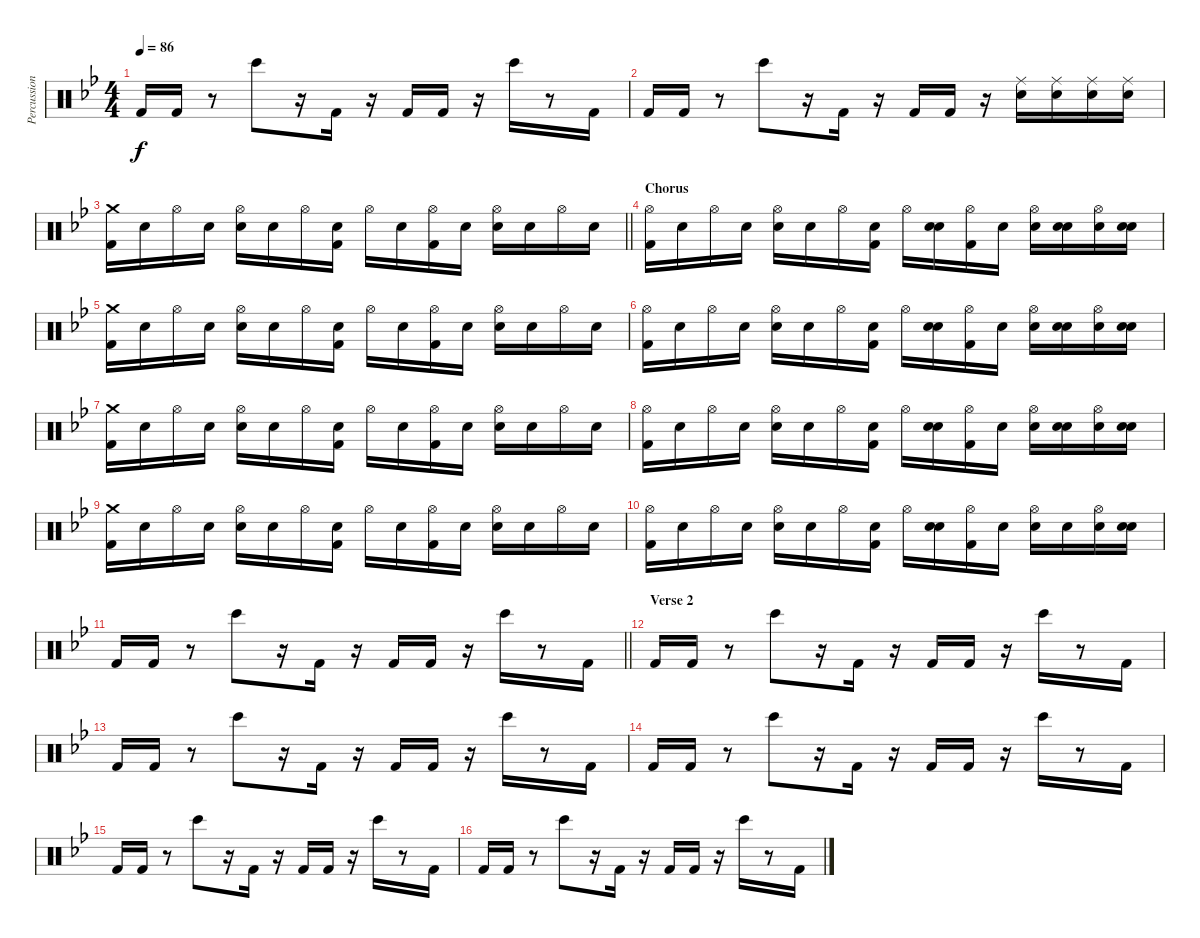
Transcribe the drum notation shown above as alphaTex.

\track ("Percussion" "Percussion") {instrument percussion}
\staff {score}
\articulation defaults
\ts (4 4)
\tempo 86
\clef neutral
\ks gminor "Kick (hit) 2".16{dy f} "Kick (hit) 2".16
r.8 "Bongo High (hit)".8 r.16 "Kick (hit) 2".16 r.16 "Kick (hit) 2".16 "Kick (hit) 2".16 r.16 "Bongo High (hit)".16 r.8 "Kick (hit) 2".16 |
"Kick (hit) 2".16 "Kick (hit) 2".16 r.8 "Bongo High (hit)".8 r.16 "Kick (hit) 2".16 r.16 "Kick (hit) 2".16 "Kick (hit) 2".16 r.16 ("Ride (middle)" "Snare (hit) 2").16{volume 13} ("Ride (middle)" "Snare (hit) 2").16 ("Ride (middle)" "Snare (hit) 2").16 ("Ride (middle)" "Snare (hit) 2").16 |
\barLineRight lightlight
("Crash medium (hit)" "Kick (hit) 2").16 "Snare (hit)".16 "Hi-Hat (open)".16 "Snare (hit)".16 ("Hi-Hat (open)" "Electric Snare (hit)").16 "Snare (hit)".16 "Hi-Hat (open)".16 ("Snare (hit)" "Kick (hit) 2").16 "Hi-Hat (open)".16 "Snare (hit)".16 ("Hi-Hat (open)" "Kick (hit) 2").16 "Snare (hit)".16 ("Hi-Hat (open)" "Electric Snare (hit)").16 "Snare (hit)".16 "Hi-Hat (open)".16 "Snare (hit)".16 |
\section ("" "Chorus")
("Hi-Hat (open)" "Kick (hit) 2").16 "Snare (hit)".16 "Hi-Hat (open)".16 "Snare (hit)".16 ("Hi-Hat (open)" "Electric Snare (hit)").16 "Snare (hit)".16 "Hi-Hat (open)".16 ("Snare (hit)" "Kick (hit) 2").16 "Hi-Hat (open)".16 ("Snare (hit)" "Electric Snare (hit)").16 ("Hi-Hat (open)" "Kick (hit) 2").16 "Snare (hit)".16 ("Hi-Hat (open)" "Electric Snare (hit)").16 ("Snare (hit)" "Electric Snare (hit)").16 ("Hi-Hat (open)" "Electric Snare (hit)").16 ("Snare (hit)" "Electric Snare (hit)").16 |
("Crash medium (hit)" "Kick (hit) 2").16 "Snare (hit)".16 "Hi-Hat (open)".16 "Snare (hit)".16 ("Hi-Hat (open)" "Electric Snare (hit)").16 "Snare (hit)".16 "Hi-Hat (open)".16 ("Snare (hit)" "Kick (hit) 2").16 "Hi-Hat (open)".16 "Snare (hit)".16 ("Hi-Hat (open)" "Kick (hit) 2").16 "Snare (hit)".16 ("Hi-Hat (open)" "Electric Snare (hit)").16 "Snare (hit)".16 "Hi-Hat (open)".16 "Snare (hit)".16 |
("Hi-Hat (open)" "Kick (hit) 2").16 "Snare (hit)".16 "Hi-Hat (open)".16 "Snare (hit)".16 ("Hi-Hat (open)" "Electric Snare (hit)").16 "Snare (hit)".16 "Hi-Hat (open)".16 ("Snare (hit)" "Kick (hit) 2").16 "Hi-Hat (open)".16 ("Snare (hit)" "Electric Snare (hit)").16 ("Hi-Hat (open)" "Kick (hit) 2").16 "Snare (hit)".16 ("Hi-Hat (open)" "Electric Snare (hit)").16 ("Snare (hit)" "Electric Snare (hit)").16 ("Hi-Hat (open)" "Electric Snare (hit)").16 ("Snare (hit)" "Electric Snare (hit)").16 |
("Crash medium (hit)" "Kick (hit) 2").16 "Snare (hit)".16 "Hi-Hat (open)".16 "Snare (hit)".16 ("Hi-Hat (open)" "Electric Snare (hit)").16 "Snare (hit)".16 "Hi-Hat (open)".16 ("Snare (hit)" "Kick (hit) 2").16 "Hi-Hat (open)".16 "Snare (hit)".16 ("Hi-Hat (open)" "Kick (hit) 2").16 "Snare (hit)".16 ("Hi-Hat (open)" "Electric Snare (hit)").16 "Snare (hit)".16 "Hi-Hat (open)".16 "Snare (hit)".16 |
("Hi-Hat (open)" "Kick (hit) 2").16 "Snare (hit)".16 "Hi-Hat (open)".16 "Snare (hit)".16 ("Hi-Hat (open)" "Electric Snare (hit)").16 "Snare (hit)".16 "Hi-Hat (open)".16 ("Snare (hit)" "Kick (hit) 2").16 "Hi-Hat (open)".16 ("Snare (hit)" "Electric Snare (hit)").16 ("Hi-Hat (open)" "Kick (hit) 2").16 "Snare (hit)".16 ("Hi-Hat (open)" "Electric Snare (hit)").16 ("Snare (hit)" "Electric Snare (hit)").16 ("Hi-Hat (open)" "Electric Snare (hit)").16 ("Snare (hit)" "Electric Snare (hit)").16 |
("Crash medium (hit)" "Kick (hit) 2").16 "Snare (hit)".16 "Hi-Hat (open)".16 "Snare (hit)".16 ("Hi-Hat (open)" "Electric Snare (hit)").16 "Snare (hit)".16 "Hi-Hat (open)".16 ("Snare (hit)" "Kick (hit) 2").16 "Hi-Hat (open)".16 "Snare (hit)".16 ("Hi-Hat (open)" "Kick (hit) 2").16 "Snare (hit)".16 ("Hi-Hat (open)" "Electric Snare (hit)").16 "Snare (hit)".16 "Hi-Hat (open)".16 "Snare (hit)".16 |
("Hi-Hat (open)" "Kick (hit) 2").16 "Snare (hit)".16 "Hi-Hat (open)".16 "Snare (hit)".16 ("Hi-Hat (open)" "Electric Snare (hit)").16 "Snare (hit)".16 "Hi-Hat (open)".16 ("Snare (hit)" "Kick (hit) 2").16 "Hi-Hat (open)".16 ("Snare (hit)" "Electric Snare (hit)").16 ("Hi-Hat (open)" "Kick (hit) 2").16 "Snare (hit)".16 ("Hi-Hat (open)" "Electric Snare (hit)").16 "Snare (hit)".16 ("Hi-Hat (open)" "Electric Snare (hit)").16 ("Snare (hit)" "Electric Snare (hit)").16 |
\barLineRight lightlight "Kick (hit) 2".16{volume 9} "Kick (hit) 2".16
r.8 "Bongo High (hit)".8 r.16 "Kick (hit) 2".16 r.16 "Kick (hit) 2".16 "Kick (hit) 2".16 r.16 "Bongo High (hit)".16 r.8 "Kick (hit) 2".16 |
\section ("" "Verse 2 ")
"Kick (hit) 2".16 "Kick (hit) 2".16 r.8 "Bongo High (hit)".8 r.16 "Kick (hit) 2".16 r.16 "Kick (hit) 2".16 "Kick (hit) 2".16 r.16 "Bongo High (hit)".16 r.8 "Kick (hit) 2".16 |
"Kick (hit) 2".16 "Kick (hit) 2".16 r.8 "Bongo High (hit)".8 r.16 "Kick (hit) 2".16 r.16 "Kick (hit) 2".16 "Kick (hit) 2".16 r.16 "Bongo High (hit)".16 r.8 "Kick (hit) 2".16 |
"Kick (hit) 2".16 "Kick (hit) 2".16 r.8 "Bongo High (hit)".8 r.16 "Kick (hit) 2".16 r.16 "Kick (hit) 2".16 "Kick (hit) 2".16 r.16 "Bongo High (hit)".16 r.8 "Kick (hit) 2".16 |
"Kick (hit) 2".16 "Kick (hit) 2".16 r.8 "Bongo High (hit)".8 r.16 "Kick (hit) 2".16 r.16 "Kick (hit) 2".16 "Kick (hit) 2".16 r.16 "Bongo High (hit)".16 r.8 "Kick (hit) 2".16 |
"Kick (hit) 2".16 "Kick (hit) 2".16 r.8 "Bongo High (hit)".8 r.16 "Kick (hit) 2".16 r.16 "Kick (hit) 2".16 "Kick (hit) 2".16 r.16 "Bongo High (hit)".16 r.8 "Kick (hit) 2".16
